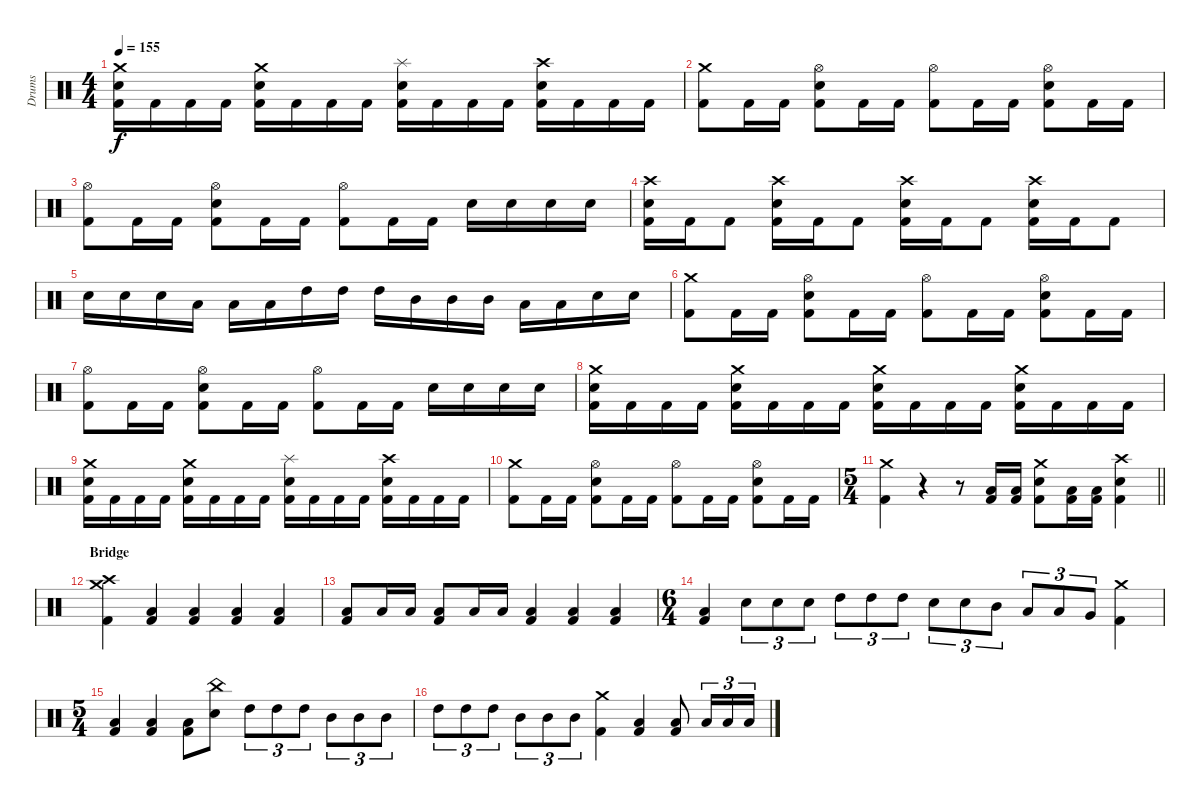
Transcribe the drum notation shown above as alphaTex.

\track ("Drums" "Drums") {instrument percussion}
\staff {score}
\articulation defaults
\ts (4 4)
\tempo 155
\clef neutral
\ks c
("Crash medium (hit)" "Electric Snare (hit)" "Kick (hit) 2").16{dy f} "Kick (hit) 2".16 "Kick (hit) 2".16 "Kick (hit) 2".16 ("Crash medium (hit)" "Electric Snare (hit)" "Kick (hit) 2").16 "Kick (hit) 2".16 "Kick (hit) 2".16 "Kick (hit) 2".16 ("Splash (hit)" "Electric Snare (hit)" "Kick (hit) 2").16 "Kick (hit) 2".16 "Kick (hit) 2".16 "Kick (hit) 2".16 ("Crash high (hit)" "Electric Snare (hit)" "Kick (hit) 2").16 "Kick (hit) 2".16 "Kick (hit) 2".16 "Kick (hit) 2".16 |
("Crash medium (hit)" "Kick (hit) 2").8 "Kick (hit) 2".16 "Kick (hit) 2".16 ("Hi-Hat (open)" "Electric Snare (hit)" "Kick (hit) 2").8 "Kick (hit) 2".16 "Kick (hit) 2".16 ("Hi-Hat (open)" "Kick (hit) 2").8 "Kick (hit) 2".16 "Kick (hit) 2".16 ("Hi-Hat (open)" "Electric Snare (hit)" "Kick (hit) 2").8 "Kick (hit) 2".16 "Kick (hit) 2".16 |
("Hi-Hat (open)" "Kick (hit) 2").8 "Kick (hit) 2".16 "Kick (hit) 2".16 ("Hi-Hat (open)" "Electric Snare (hit)" "Kick (hit) 2").8 "Kick (hit) 2".16 "Kick (hit) 2".16 ("Hi-Hat (open)" "Kick (hit) 2").8 "Kick (hit) 2".16 "Kick (hit) 2".16 "Electric Snare (hit)".16 "Electric Snare (hit)".16 "Electric Snare (hit)".16 "Electric Snare (hit)".16 |
("Crash high (hit)" "Electric Snare (hit)" "Kick (hit) 2").16 "Kick (hit) 2".16 "Kick (hit) 2".8 ("Crash high (hit)" "Electric Snare (hit)" "Kick (hit) 2").16 "Kick (hit) 2".16 "Kick (hit) 2".8 ("Crash high (hit)" "Electric Snare (hit)" "Kick (hit) 2").16 "Kick (hit) 2".16 "Kick (hit) 2".8 ("Crash high (hit)" "Electric Snare (hit)" "Kick (hit) 2").16 "Kick (hit) 2".16 "Kick (hit) 2".8 |
"Electric Snare (hit)".16 "Electric Snare (hit)".16 "Electric Snare (hit)".16 "Low Tom (hit)".16 "Low Tom (hit)".16 "Low Tom (hit)".16 "High Tom (hit)".16 "High Tom (hit)".16 "High Tom (hit)".16 "Mid Tom (hit)".16 "Mid Tom (hit)".16 "Mid Tom (hit)".16 "Low Tom (hit)".16 "Low Tom (hit)".16 "Electric Snare (hit)".16 "Electric Snare (hit)".16 |
("Crash medium (hit)" "Kick (hit) 2").8 "Kick (hit) 2".16 "Kick (hit) 2".16 ("Hi-Hat (open)" "Electric Snare (hit)" "Kick (hit) 2").8 "Kick (hit) 2".16 "Kick (hit) 2".16 ("Hi-Hat (open)" "Kick (hit) 2").8 "Kick (hit) 2".16 "Kick (hit) 2".16 ("Hi-Hat (open)" "Electric Snare (hit)" "Kick (hit) 2").8 "Kick (hit) 2".16 "Kick (hit) 2".16 |
("Hi-Hat (open)" "Kick (hit) 2").8 "Kick (hit) 2".16 "Kick (hit) 2".16 ("Hi-Hat (open)" "Electric Snare (hit)" "Kick (hit) 2").8 "Kick (hit) 2".16 "Kick (hit) 2".16 ("Hi-Hat (open)" "Kick (hit) 2").8 "Kick (hit) 2".16 "Kick (hit) 2".16 "Electric Snare (hit)".16 "Electric Snare (hit)".16 "Electric Snare (hit)".16 "Electric Snare (hit)".16 |
("Crash medium (hit)" "Electric Snare (hit)" "Kick (hit) 2").16 "Kick (hit) 2".16 "Kick (hit) 2".16 "Kick (hit) 2".16 ("Crash medium (hit)" "Electric Snare (hit)" "Kick (hit) 2").16 "Kick (hit) 2".16 "Kick (hit) 2".16 "Kick (hit) 2".16 ("Crash medium (hit)" "Electric Snare (hit)" "Kick (hit) 2").16 "Kick (hit) 2".16 "Kick (hit) 2".16 "Kick (hit) 2".16 ("Crash medium (hit)" "Electric Snare (hit)" "Kick (hit) 2").16 "Kick (hit) 2".16 "Kick (hit) 2".16 "Kick (hit) 2".16 |
("Crash medium (hit)" "Electric Snare (hit)" "Kick (hit) 2").16 "Kick (hit) 2".16 "Kick (hit) 2".16 "Kick (hit) 2".16 ("Crash medium (hit)" "Electric Snare (hit)" "Kick (hit) 2").16 "Kick (hit) 2".16 "Kick (hit) 2".16 "Kick (hit) 2".16 ("Splash (hit)" "Electric Snare (hit)" "Kick (hit) 2").16 "Kick (hit) 2".16 "Kick (hit) 2".16 "Kick (hit) 2".16 ("Crash high (hit)" "Electric Snare (hit)" "Kick (hit) 2").16 "Kick (hit) 2".16 "Kick (hit) 2".16 "Kick (hit) 2".16 |
("Crash medium (hit)" "Kick (hit) 2").8 "Kick (hit) 2".16 "Kick (hit) 2".16 ("Hi-Hat (open)" "Electric Snare (hit)" "Kick (hit) 2").8 "Kick (hit) 2".16 "Kick (hit) 2".16 ("Hi-Hat (open)" "Kick (hit) 2").8 "Kick (hit) 2".16 "Kick (hit) 2".16 ("Hi-Hat (open)" "Electric Snare (hit)" "Kick (hit) 2").8 "Kick (hit) 2".16 "Kick (hit) 2".16 |
\ts (5 4)
\barLineRight lightlight
("Crash medium (hit)" "Kick (hit) 2").4 r.4 r.8 ("Low Tom (hit)" "Kick (hit) 2").16 ("Low Tom (hit)" "Kick (hit) 2").16 ("Crash medium (hit)" "Electric Snare (hit)" "Kick (hit) 2").8 ("Low Tom (hit)" "Kick (hit) 2").16 ("Low Tom (hit)" "Kick (hit) 2").16 ("Crash high (hit)" "Electric Snare (hit)" "Kick (hit) 2").4 |
\section ("" "Bridge")
("Crash high (hit)" "Crash medium (hit)" "Kick (hit) 2").4 ("Low Tom (hit)" "Kick (hit) 2").4 ("Low Tom (hit)" "Kick (hit) 2").4 ("Low Tom (hit)" "Kick (hit) 2").4 ("Low Tom (hit)" "Kick (hit) 2").4 |
("Low Tom (hit)" "Kick (hit) 2").8 "Low Tom (hit)".16 "Low Tom (hit)".16 ("Low Tom (hit)" "Kick (hit) 2").8 "Low Tom (hit)".16 "Low Tom (hit)".16 ("Low Tom (hit)" "Kick (hit) 2").4 ("Low Tom (hit)" "Kick (hit) 2").4 ("Low Tom (hit)" "Kick (hit) 2").4 |
\ts (6 4)
("Low Tom (hit)" "Kick (hit) 2").4 "Electric Snare (hit)".8{tu (3 2)} "Electric Snare (hit)".8{tu (3 2)} "Electric Snare (hit)".8{tu (3 2)} "High Tom (hit)".8{tu (3 2)} "High Tom (hit)".8{tu (3 2)} "High Tom (hit)".8{tu (3 2)} "Electric Snare (hit)".8{tu (3 2)} "Electric Snare (hit)".8{tu (3 2)} "Mid Tom (hit)".8{tu (3 2)} "Low Tom (hit)".8{tu (3 2)} "Low Tom (hit)".8{tu (3 2)} "Very Low Tom (hit)".8{tu (3 2)} ("Crash medium (hit)" "Kick (hit) 2").4 |
\ts (5 4)
("Low Tom (hit)" "Kick (hit) 2").4 ("Low Tom (hit)" "Kick (hit) 2").4 ("Low Tom (hit)" "Kick (hit) 2").8 ("China (hit)" "Electric Snare (hit)").8 "High Tom (hit)".8{tu (3 2)} "High Tom (hit)".8{tu (3 2)} "High Tom (hit)".8{tu (3 2)} "Mid Tom (hit)".8{tu (3 2)} "Mid Tom (hit)".8{tu (3 2)} "Mid Tom (hit)".8{tu (3 2)} |
"High Tom (hit)".8{tu (3 2)} "High Tom (hit)".8{tu (3 2)} "High Tom (hit)".8{tu (3 2)} "Mid Tom (hit)".8{tu (3 2)} "Mid Tom (hit)".8{tu (3 2)} "Mid Tom (hit)".8{tu (3 2)} ("Crash medium (hit)" "Kick (hit) 2").4 ("Low Tom (hit)" "Kick (hit) 2").4 ("Low Tom (hit)" "Kick (hit) 2").8 "Low Tom (hit)".16{tu (3 2)} "Low Tom (hit)".16{tu (3 2)} "Low Tom (hit)".16{tu (3 2)}
